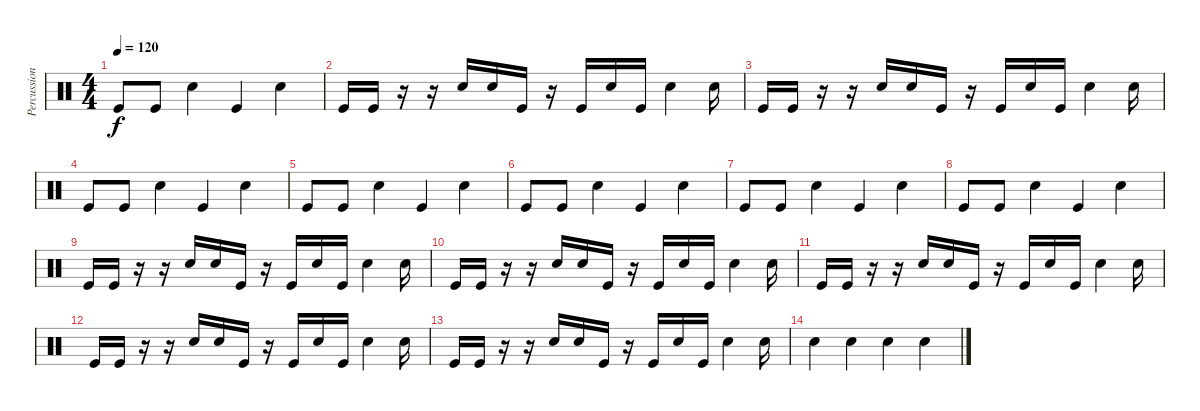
\track ("Percussion" "Percussion") {instrument percussion}
\staff {score}
\articulation defaults
\ts (4 4)
\tempo 120
\clef neutral
\ks c "Kick (hit)".8{dy f} "Kick (hit)".8 "Electric Snare (hit)".4 "Kick (hit)".4 "Electric Snare (hit)".4
|
"Kick (hit)".16 "Kick (hit)".16 r.16 r.16 "Electric Snare (hit)".16 "Electric Snare (hit)".16 "Kick (hit)".16 r.16 "Kick (hit)".16 "Electric Snare (hit)".16 "Kick (hit)".16 "Electric Snare (hit)".4 "Electric Snare (hit)".16 |
"Kick (hit)".16 "Kick (hit)".16 r.16 r.16 "Electric Snare (hit)".16 "Electric Snare (hit)".16 "Kick (hit)".16 r.16 "Kick (hit)".16 "Electric Snare (hit)".16 "Kick (hit)".16 "Electric Snare (hit)".4 "Electric Snare (hit)".16 |
"Kick (hit)".8 "Kick (hit)".8 "Electric Snare (hit)".4 "Kick (hit)".4 "Electric Snare (hit)".4 |
"Kick (hit)".8 "Kick (hit)".8 "Electric Snare (hit)".4 "Kick (hit)".4 "Electric Snare (hit)".4 |
"Kick (hit)".8 "Kick (hit)".8 "Electric Snare (hit)".4 "Kick (hit)".4 "Electric Snare (hit)".4 |
"Kick (hit)".8 "Kick (hit)".8 "Electric Snare (hit)".4 "Kick (hit)".4 "Electric Snare (hit)".4 |
"Kick (hit)".8 "Kick (hit)".8 "Electric Snare (hit)".4 "Kick (hit)".4 "Electric Snare (hit)".4 |
"Kick (hit)".16 "Kick (hit)".16 r.16 r.16 "Electric Snare (hit)".16 "Electric Snare (hit)".16 "Kick (hit)".16 r.16 "Kick (hit)".16 "Electric Snare (hit)".16 "Kick (hit)".16 "Electric Snare (hit)".4 "Electric Snare (hit)".16 |
"Kick (hit)".16 "Kick (hit)".16 r.16 r.16 "Electric Snare (hit)".16 "Electric Snare (hit)".16 "Kick (hit)".16 r.16 "Kick (hit)".16 "Electric Snare (hit)".16 "Kick (hit)".16 "Electric Snare (hit)".4 "Electric Snare (hit)".16 |
"Kick (hit)".16 "Kick (hit)".16 r.16 r.16 "Electric Snare (hit)".16 "Electric Snare (hit)".16 "Kick (hit)".16 r.16 "Kick (hit)".16 "Electric Snare (hit)".16 "Kick (hit)".16 "Electric Snare (hit)".4 "Electric Snare (hit)".16 |
"Kick (hit)".16 "Kick (hit)".16 r.16 r.16 "Electric Snare (hit)".16 "Electric Snare (hit)".16 "Kick (hit)".16 r.16 "Kick (hit)".16 "Electric Snare (hit)".16 "Kick (hit)".16 "Electric Snare (hit)".4 "Electric Snare (hit)".16 |
"Kick (hit)".16 "Kick (hit)".16 r.16 r.16 "Electric Snare (hit)".16 "Electric Snare (hit)".16 "Kick (hit)".16 r.16 "Kick (hit)".16 "Electric Snare (hit)".16 "Kick (hit)".16 "Electric Snare (hit)".4 "Electric Snare (hit)".16 |
"Electric Snare (hit)".4 "Electric Snare (hit)".4 "Electric Snare (hit)".4 "Electric Snare (hit)".4
